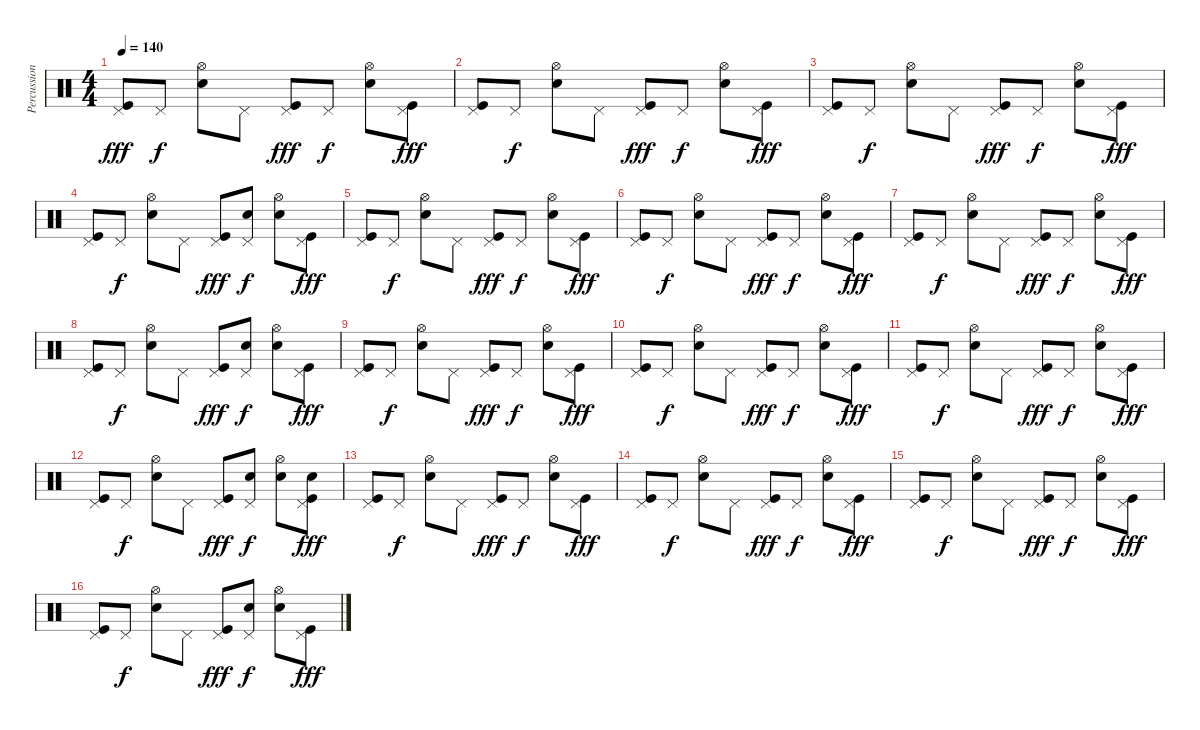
\track ("Percussion" "Percussion") {instrument percussion}
\staff {score}
\articulation defaults
\ts (4 4)
\tempo 140
\clef neutral
\ks c
("Kick (hit)" "Pedal Hi-Hat (hit)").8{dy fff} "Pedal Hi-Hat (hit)".8{dy f} ("Metronome (bell)" "Hi-Hat (open)").8 "Pedal Hi-Hat (hit)".8 ("Kick (hit)" "Pedal Hi-Hat (hit)").8{dy fff} "Pedal Hi-Hat (hit)".8{dy f} ("Metronome (bell)" "Hi-Hat (open)").8 ("Kick (hit)" "Pedal Hi-Hat (hit)").8{dy fff} |
("Kick (hit)" "Pedal Hi-Hat (hit)").8 "Pedal Hi-Hat (hit)".8{dy f} ("Metronome (bell)" "Hi-Hat (open)").8 "Pedal Hi-Hat (hit)".8 ("Kick (hit)" "Pedal Hi-Hat (hit)").8{dy fff} "Pedal Hi-Hat (hit)".8{dy f} ("Metronome (bell)" "Hi-Hat (open)").8 ("Kick (hit)" "Pedal Hi-Hat (hit)").8{dy fff} |
("Kick (hit)" "Pedal Hi-Hat (hit)").8 "Pedal Hi-Hat (hit)".8{dy f} ("Metronome (bell)" "Hi-Hat (open)").8 "Pedal Hi-Hat (hit)".8 ("Kick (hit)" "Pedal Hi-Hat (hit)").8{dy fff} "Pedal Hi-Hat (hit)".8{dy f} ("Metronome (bell)" "Hi-Hat (open)").8 ("Kick (hit)" "Pedal Hi-Hat (hit)").8{dy fff} |
("Kick (hit)" "Pedal Hi-Hat (hit)").8 "Pedal Hi-Hat (hit)".8{dy f} ("Metronome (bell)" "Hi-Hat (open)").8 "Pedal Hi-Hat (hit)".8 ("Kick (hit)" "Pedal Hi-Hat (hit)").8{dy fff} ("Metronome (bell)" "Pedal Hi-Hat (hit)").8{dy f} ("Metronome (bell)" "Hi-Hat (open)").8 ("Kick (hit)" "Pedal Hi-Hat (hit)").8{dy fff} |
("Kick (hit)" "Pedal Hi-Hat (hit)").8 "Pedal Hi-Hat (hit)".8{dy f} ("Metronome (bell)" "Hi-Hat (open)").8 "Pedal Hi-Hat (hit)".8 ("Kick (hit)" "Pedal Hi-Hat (hit)").8{dy fff} "Pedal Hi-Hat (hit)".8{dy f} ("Metronome (bell)" "Hi-Hat (open)").8 ("Kick (hit)" "Pedal Hi-Hat (hit)").8{dy fff} |
("Kick (hit)" "Pedal Hi-Hat (hit)").8 "Pedal Hi-Hat (hit)".8{dy f} ("Metronome (bell)" "Hi-Hat (open)").8 "Pedal Hi-Hat (hit)".8 ("Kick (hit)" "Pedal Hi-Hat (hit)").8{dy fff} "Pedal Hi-Hat (hit)".8{dy f} ("Metronome (bell)" "Hi-Hat (open)").8 ("Kick (hit)" "Pedal Hi-Hat (hit)").8{dy fff} |
("Kick (hit)" "Pedal Hi-Hat (hit)").8 "Pedal Hi-Hat (hit)".8{dy f} ("Metronome (bell)" "Hi-Hat (open)").8 "Pedal Hi-Hat (hit)".8 ("Kick (hit)" "Pedal Hi-Hat (hit)").8{dy fff} "Pedal Hi-Hat (hit)".8{dy f} ("Metronome (bell)" "Hi-Hat (open)").8 ("Kick (hit)" "Pedal Hi-Hat (hit)").8{dy fff} |
("Kick (hit)" "Pedal Hi-Hat (hit)").8 "Pedal Hi-Hat (hit)".8{dy f} ("Metronome (bell)" "Hi-Hat (open)").8 "Pedal Hi-Hat (hit)".8 ("Kick (hit)" "Pedal Hi-Hat (hit)").8{dy fff} ("Metronome (bell)" "Pedal Hi-Hat (hit)").8{dy f} ("Metronome (bell)" "Hi-Hat (open)").8 ("Kick (hit)" "Pedal Hi-Hat (hit)").8{dy fff} |
("Kick (hit)" "Pedal Hi-Hat (hit)").8 "Pedal Hi-Hat (hit)".8{dy f} ("Metronome (bell)" "Hi-Hat (open)").8 "Pedal Hi-Hat (hit)".8 ("Kick (hit)" "Pedal Hi-Hat (hit)").8{dy fff} "Pedal Hi-Hat (hit)".8{dy f} ("Metronome (bell)" "Hi-Hat (open)").8 ("Kick (hit)" "Pedal Hi-Hat (hit)").8{dy fff} |
("Kick (hit)" "Pedal Hi-Hat (hit)").8 "Pedal Hi-Hat (hit)".8{dy f} ("Metronome (bell)" "Hi-Hat (open)").8 "Pedal Hi-Hat (hit)".8 ("Kick (hit)" "Pedal Hi-Hat (hit)").8{dy fff} "Pedal Hi-Hat (hit)".8{dy f} ("Metronome (bell)" "Hi-Hat (open)").8 ("Kick (hit)" "Pedal Hi-Hat (hit)").8{dy fff} |
("Kick (hit)" "Pedal Hi-Hat (hit)").8 "Pedal Hi-Hat (hit)".8{dy f} ("Metronome (bell)" "Hi-Hat (open)").8 "Pedal Hi-Hat (hit)".8 ("Kick (hit)" "Pedal Hi-Hat (hit)").8{dy fff} "Pedal Hi-Hat (hit)".8{dy f} ("Metronome (bell)" "Hi-Hat (open)").8 ("Kick (hit)" "Pedal Hi-Hat (hit)").8{dy fff} |
("Kick (hit)" "Pedal Hi-Hat (hit)").8 "Pedal Hi-Hat (hit)".8{dy f} ("Metronome (bell)" "Hi-Hat (open)").8 "Pedal Hi-Hat (hit)".8 ("Kick (hit)" "Pedal Hi-Hat (hit)").8{dy fff} ("Metronome (bell)" "Pedal Hi-Hat (hit)").8{dy f} ("Metronome (bell)" "Hi-Hat (open)").8 ("Kick (hit)" "Metronome (bell)" "Pedal Hi-Hat (hit)").8{dy fff} |
("Kick (hit)" "Pedal Hi-Hat (hit)").8 "Pedal Hi-Hat (hit)".8{dy f} ("Metronome (bell)" "Hi-Hat (open)").8 "Pedal Hi-Hat (hit)".8 ("Kick (hit)" "Pedal Hi-Hat (hit)").8{dy fff} "Pedal Hi-Hat (hit)".8{dy f} ("Metronome (bell)" "Hi-Hat (open)").8 ("Kick (hit)" "Pedal Hi-Hat (hit)").8{dy fff} |
("Kick (hit)" "Pedal Hi-Hat (hit)").8 "Pedal Hi-Hat (hit)".8{dy f} ("Metronome (bell)" "Hi-Hat (open)").8 "Pedal Hi-Hat (hit)".8 ("Kick (hit)" "Pedal Hi-Hat (hit)").8{dy fff} "Pedal Hi-Hat (hit)".8{dy f} ("Metronome (bell)" "Hi-Hat (open)").8 ("Kick (hit)" "Pedal Hi-Hat (hit)").8{dy fff} |
("Kick (hit)" "Pedal Hi-Hat (hit)").8 "Pedal Hi-Hat (hit)".8{dy f} ("Metronome (bell)" "Hi-Hat (open)").8 "Pedal Hi-Hat (hit)".8 ("Kick (hit)" "Pedal Hi-Hat (hit)").8{dy fff} "Pedal Hi-Hat (hit)".8{dy f} ("Metronome (bell)" "Hi-Hat (open)").8 ("Kick (hit)" "Pedal Hi-Hat (hit)").8{dy fff} |
("Kick (hit)" "Pedal Hi-Hat (hit)").8 "Pedal Hi-Hat (hit)".8{dy f} ("Metronome (bell)" "Hi-Hat (open)").8 "Pedal Hi-Hat (hit)".8 ("Kick (hit)" "Pedal Hi-Hat (hit)").8{dy fff} ("Metronome (bell)" "Pedal Hi-Hat (hit)").8{dy f} ("Metronome (bell)" "Hi-Hat (open)").8 ("Kick (hit)" "Pedal Hi-Hat (hit)").8{dy fff}
